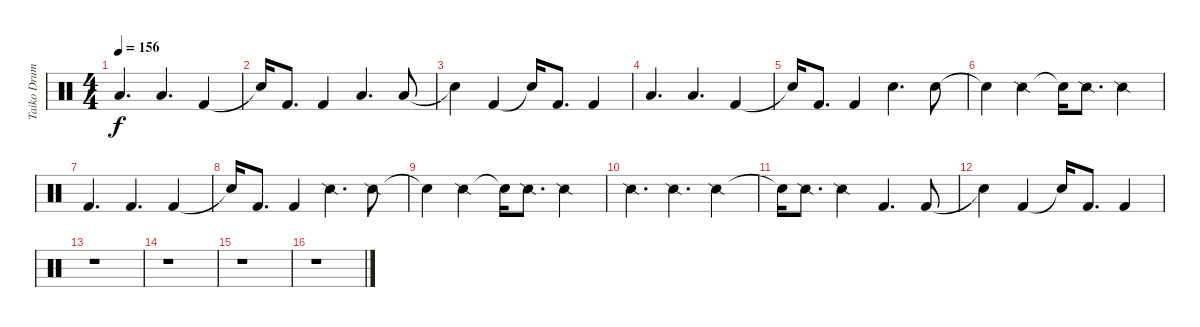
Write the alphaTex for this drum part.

\track ("Taiko Drum" "Taiko Drum") {instrument percussion}
\staff {score}
\articulation defaults
\ts (4 4)
\tempo 156
\clef neutral
\ks c "Low Floor Tom (hit)".4{d dy f} "Low Floor Tom (hit)".4{d} "Kick (hit) 2".4
|
"Snare (hit)"{t}.16 "Kick (hit) 2".8{d} "Kick (hit) 2".4 "Low Floor Tom (hit)".4{d} "Low Floor Tom (hit)".8 |
"Snare (hit)"{t}.4 "Kick (hit) 2".4 "Snare (hit)"{t}.16 "Kick (hit) 2".8{d} "Kick (hit) 2".4 |
"Low Floor Tom (hit)".4{d} "Low Floor Tom (hit)".4{d} "Kick (hit) 2".4 |
"Snare (hit)"{t}.16 "Kick (hit) 2".8{d} "Kick (hit) 2".4 "Snare (hit) 2".4{d} "Snare (hit) 2".8 |
"Snare (hit)"{t}.4 "Snare (side stick) 2".4 "Snare (hit)"{t}.16 "Snare (side stick) 2".8{d} "Snare (side stick) 2".4 |
"Kick (hit) 2".4{d} "Kick (hit) 2".4{d} "Kick (hit) 2".4 |
"Snare (hit)"{t}.16 "Kick (hit) 2".8{d} "Kick (hit) 2".4 "Snare (side stick) 2".4{d} "Snare (side stick) 2".8 |
"Snare (hit)"{t}.4 "Snare (side stick) 2".4 "Snare (hit)"{t}.16 "Snare (side stick) 2".8{d} "Snare (side stick) 2".4 |
"Snare (side stick) 2".4{d} "Snare (side stick) 2".4{d} "Snare (side stick) 2".4 |
"Snare (hit)"{t}.16 "Snare (side stick) 2".8{d} "Snare (side stick) 2".4 "Kick (hit) 2".4{d} "Kick (hit) 2".8 |
"Snare (hit)"{t}.4 "Kick (hit) 2".4 "Snare (hit)"{t}.16 "Kick (hit) 2".8{d} "Kick (hit) 2".4 |
r.1 |
r.1 |
r.1 |
r.1
